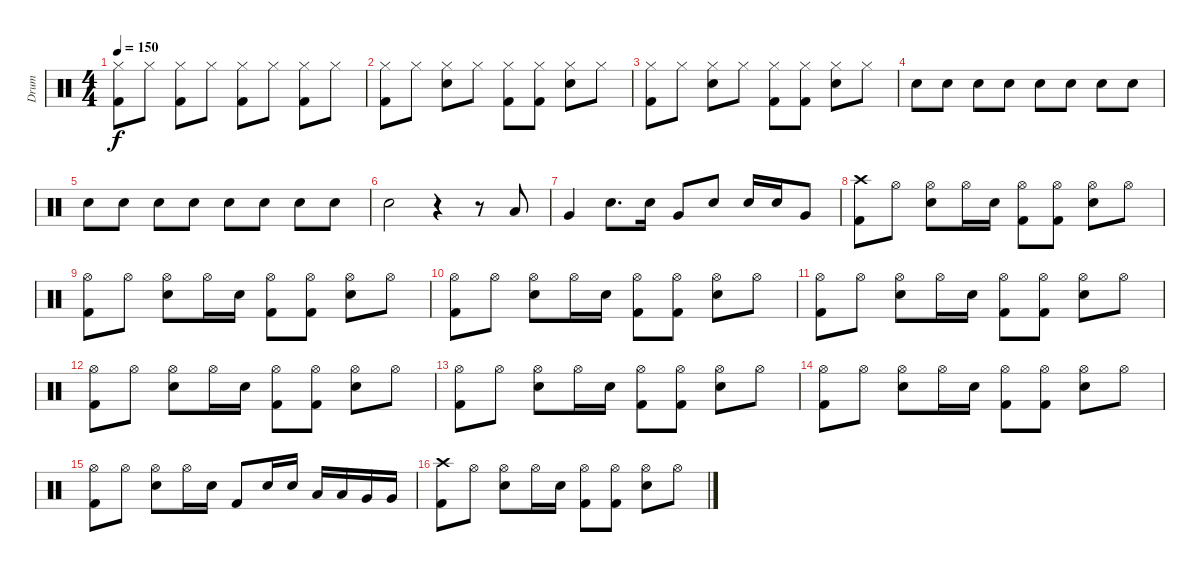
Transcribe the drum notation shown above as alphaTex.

\track ("Drum" "Drum") {instrument percussion}
\staff {score}
\articulation defaults
\ts (4 4)
\tempo 150
\clef neutral
\ks c
("Hi-Hat (closed)" "Kick (hit) 2").8{dy f} "Hi-Hat (closed)".8 ("Hi-Hat (closed)" "Kick (hit) 2").8 "Hi-Hat (closed)".8 ("Hi-Hat (closed)" "Kick (hit) 2").8 "Hi-Hat (closed)".8 ("Hi-Hat (closed)" "Kick (hit) 2").8 "Hi-Hat (closed)".8 |
("Hi-Hat (closed)" "Kick (hit) 2").8 "Hi-Hat (closed)".8 ("Hi-Hat (closed)" "Snare (hit) 2").8 "Hi-Hat (closed)".8 ("Hi-Hat (closed)" "Kick (hit) 2").8 ("Hi-Hat (closed)" "Kick (hit) 2").8 ("Hi-Hat (closed)" "Snare (hit) 2").8 "Hi-Hat (closed)".8 |
("Hi-Hat (closed)" "Kick (hit) 2").8 "Hi-Hat (closed)".8 ("Hi-Hat (closed)" "Snare (hit) 2").8 "Hi-Hat (closed)".8 ("Hi-Hat (closed)" "Kick (hit) 2").8 ("Hi-Hat (closed)" "Kick (hit) 2").8 ("Hi-Hat (closed)" "Snare (hit) 2").8 "Hi-Hat (closed)".8 |
"Snare (hit) 2".8{volume 6} "Snare (hit) 2".8 "Snare (hit) 2".8 "Snare (hit) 2".8 "Snare (hit) 2".8{volume 8} "Snare (hit) 2".8 "Snare (hit) 2".8 "Snare (hit) 2".8 |
"Snare (hit) 2".8{volume 10} "Snare (hit) 2".8 "Snare (hit) 2".8 "Snare (hit) 2".8 "Snare (hit) 2".8{volume 12} "Snare (hit) 2".8 "Snare (hit) 2".8 "Snare (hit) 2".8 |
"Snare (hit) 2".2 r.4 r.8 "Low Tom (hit)".8 |
"Very Low Tom (hit)".4 "Snare (hit) 2".8{d} "Snare (hit) 2".16 "Very Low Tom (hit)".8 "Snare (hit) 2".8 "Snare (hit) 2".16 "Snare (hit) 2".16 "Very Low Tom (hit)".8 |
("Crash high (hit)" "Kick (hit) 2").8 "Hi-Hat (open)".8 ("Hi-Hat (open)" "Snare (hit) 2").8 "Hi-Hat (open)".16 "Snare (hit) 2".16 ("Hi-Hat (open)" "Kick (hit) 2").8 ("Hi-Hat (open)" "Kick (hit) 2").8 ("Hi-Hat (open)" "Snare (hit) 2").8 "Hi-Hat (open)".8 |
("Hi-Hat (open)" "Kick (hit) 2").8 "Hi-Hat (open)".8 ("Hi-Hat (open)" "Snare (hit) 2").8 "Hi-Hat (open)".16 "Snare (hit) 2".16 ("Hi-Hat (open)" "Kick (hit) 2").8 ("Hi-Hat (open)" "Kick (hit) 2").8 ("Hi-Hat (open)" "Snare (hit) 2").8 "Hi-Hat (open)".8 |
("Hi-Hat (open)" "Kick (hit) 2").8 "Hi-Hat (open)".8 ("Hi-Hat (open)" "Snare (hit) 2").8 "Hi-Hat (open)".16 "Snare (hit) 2".16 ("Hi-Hat (open)" "Kick (hit) 2").8 ("Hi-Hat (open)" "Kick (hit) 2").8 ("Hi-Hat (open)" "Snare (hit) 2").8 "Hi-Hat (open)".8 |
("Hi-Hat (open)" "Kick (hit) 2").8 "Hi-Hat (open)".8 ("Hi-Hat (open)" "Snare (hit) 2").8 "Hi-Hat (open)".16 "Snare (hit) 2".16 ("Hi-Hat (open)" "Kick (hit) 2").8 ("Hi-Hat (open)" "Kick (hit) 2").8 ("Hi-Hat (open)" "Snare (hit) 2").8 "Hi-Hat (open)".8 |
("Hi-Hat (open)" "Kick (hit) 2").8 "Hi-Hat (open)".8 ("Hi-Hat (open)" "Snare (hit) 2").8 "Hi-Hat (open)".16 "Snare (hit) 2".16 ("Hi-Hat (open)" "Kick (hit) 2").8 ("Hi-Hat (open)" "Kick (hit) 2").8 ("Hi-Hat (open)" "Snare (hit) 2").8 "Hi-Hat (open)".8 |
("Hi-Hat (open)" "Kick (hit) 2").8 "Hi-Hat (open)".8 ("Hi-Hat (open)" "Snare (hit) 2").8 "Hi-Hat (open)".16 "Snare (hit) 2".16 ("Hi-Hat (open)" "Kick (hit) 2").8 ("Hi-Hat (open)" "Kick (hit) 2").8 ("Hi-Hat (open)" "Snare (hit) 2").8 "Hi-Hat (open)".8 |
("Hi-Hat (open)" "Kick (hit) 2").8 "Hi-Hat (open)".8 ("Hi-Hat (open)" "Snare (hit) 2").8 "Hi-Hat (open)".16 "Snare (hit) 2".16 ("Hi-Hat (open)" "Kick (hit) 2").8 ("Hi-Hat (open)" "Kick (hit) 2").8 ("Hi-Hat (open)" "Snare (hit) 2").8 "Hi-Hat (open)".8 |
("Hi-Hat (open)" "Kick (hit) 2").8 "Hi-Hat (open)".8 ("Hi-Hat (open)" "Snare (hit) 2").8 "Hi-Hat (open)".16 "Snare (hit) 2".16 "Kick (hit) 2".8 "Snare (hit) 2".16 "Snare (hit) 2".16 "Low Tom (hit)".16 "Low Tom (hit)".16 "Very Low Tom (hit)".16 "Very Low Tom (hit)".16 |
("Crash high (hit)" "Kick (hit) 2").8 "Hi-Hat (open)".8 ("Hi-Hat (open)" "Snare (hit) 2").8 "Hi-Hat (open)".16 "Snare (hit) 2".16 ("Hi-Hat (open)" "Kick (hit) 2").8 ("Hi-Hat (open)" "Kick (hit) 2").8 ("Hi-Hat (open)" "Snare (hit) 2").8 "Hi-Hat (open)".8
